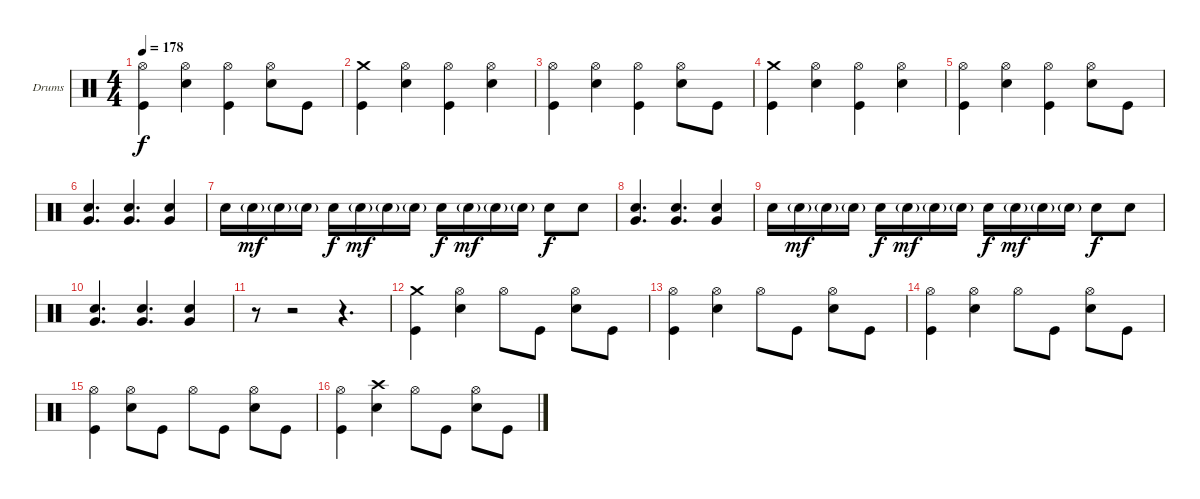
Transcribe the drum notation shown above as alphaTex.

\bracketExtendMode groupsimilarinstruments
\firstSystemTrackNameOrientation horizontal
\otherSystemsTrackNameOrientation horizontal
\track ("Drumkit" "Drums") {instrument percussion}
\staff {score}
\articulation defaults
\ts (4 4)
\tempo 178
\clef neutral
\ks c
("Hi-Hat (open)" "Kick (hit)").4{dy f} ("Hi-Hat (open)" "Snare (hit) 2").4 ("Hi-Hat (open)" "Kick (hit)").4 ("Hi-Hat (open)" "Snare (hit) 2").8 "Kick (hit)".8 |
("Crash medium (hit)" "Kick (hit)").4 ("Hi-Hat (open)" "Snare (hit) 2").4 ("Hi-Hat (open)" "Kick (hit)").4 ("Hi-Hat (open)" "Snare (hit) 2").4 |
("Hi-Hat (open)" "Kick (hit)").4 ("Hi-Hat (open)" "Snare (hit) 2").4 ("Hi-Hat (open)" "Kick (hit)").4 ("Hi-Hat (open)" "Snare (hit) 2").8 "Kick (hit)".8 |
("Crash medium (hit)" "Kick (hit)").4 ("Hi-Hat (open)" "Snare (hit) 2").4 ("Hi-Hat (open)" "Kick (hit)").4 ("Hi-Hat (open)" "Snare (hit) 2").4 |
("Hi-Hat (open)" "Kick (hit)").4 ("Hi-Hat (open)" "Snare (hit) 2").4 ("Hi-Hat (open)" "Kick (hit)").4 ("Hi-Hat (open)" "Snare (hit) 2").8 "Kick (hit)".8 |
("Snare (hit) 2" "Very Low Tom (hit)").4{d} ("Snare (hit) 2" "Very Low Tom (hit)").4{d} ("Snare (hit) 2" "Very Low Tom (hit)").4 |
"Snare (hit) 2".16 "Snare (hit) 2"{g}.16{dy mf} "Snare (hit) 2"{g}.16 "Snare (hit) 2"{g}.16 "Snare (hit) 2".16{dy f} "Snare (hit) 2"{g}.16{dy mf} "Snare (hit) 2"{g}.16 "Snare (hit) 2"{g}.16 "Snare (hit) 2".16{dy f} "Snare (hit) 2"{g}.16{dy mf} "Snare (hit) 2"{g}.16 "Snare (hit) 2"{g}.16 "Snare (hit) 2".8{dy f} "Snare (hit) 2".8 |
("Snare (hit) 2" "Very Low Tom (hit)").4{d} ("Snare (hit) 2" "Very Low Tom (hit)").4{d} ("Snare (hit) 2" "Very Low Tom (hit)").4 |
"Snare (hit) 2".16 "Snare (hit) 2"{g}.16{dy mf} "Snare (hit) 2"{g}.16 "Snare (hit) 2"{g}.16 "Snare (hit) 2".16{dy f} "Snare (hit) 2"{g}.16{dy mf} "Snare (hit) 2"{g}.16 "Snare (hit) 2"{g}.16 "Snare (hit) 2".16{dy f} "Snare (hit) 2"{g}.16{dy mf} "Snare (hit) 2"{g}.16 "Snare (hit) 2"{g}.16 "Snare (hit) 2".8{dy f} "Snare (hit) 2".8 |
("Snare (hit) 2" "Very Low Tom (hit)").4{d} ("Snare (hit) 2" "Very Low Tom (hit)").4{d} ("Snare (hit) 2" "Very Low Tom (hit)").4 |
r.8 r.2 r.4{d} |
("Crash medium (hit)" "Kick (hit)").4 ("Hi-Hat (open)" "Snare (hit) 2").4 "Hi-Hat (open)".8 "Kick (hit)".8 ("Hi-Hat (open)" "Snare (hit) 2").8 "Kick (hit)".8 |
("Hi-Hat (open)" "Kick (hit)").4 ("Hi-Hat (open)" "Snare (hit) 2").4 "Hi-Hat (open)".8 "Kick (hit)".8 ("Hi-Hat (open)" "Snare (hit) 2").8 "Kick (hit)".8 |
("Hi-Hat (open)" "Kick (hit)").4 ("Hi-Hat (open)" "Snare (hit) 2").4 "Hi-Hat (open)".8 "Kick (hit)".8 ("Hi-Hat (open)" "Snare (hit) 2").8 "Kick (hit)".8 |
("Hi-Hat (open)" "Kick (hit)").4 ("Hi-Hat (open)" "Snare (hit) 2").8 "Kick (hit)".8 "Hi-Hat (open)".8 "Kick (hit)".8 ("Hi-Hat (open)" "Snare (hit) 2").8 "Kick (hit)".8 |
("Hi-Hat (open)" "Kick (hit)").4 ("Crash high (hit)" "Snare (hit) 2").4 "Hi-Hat (open)".8 "Kick (hit)".8 ("Hi-Hat (open)" "Snare (hit) 2").8 "Kick (hit)".8
